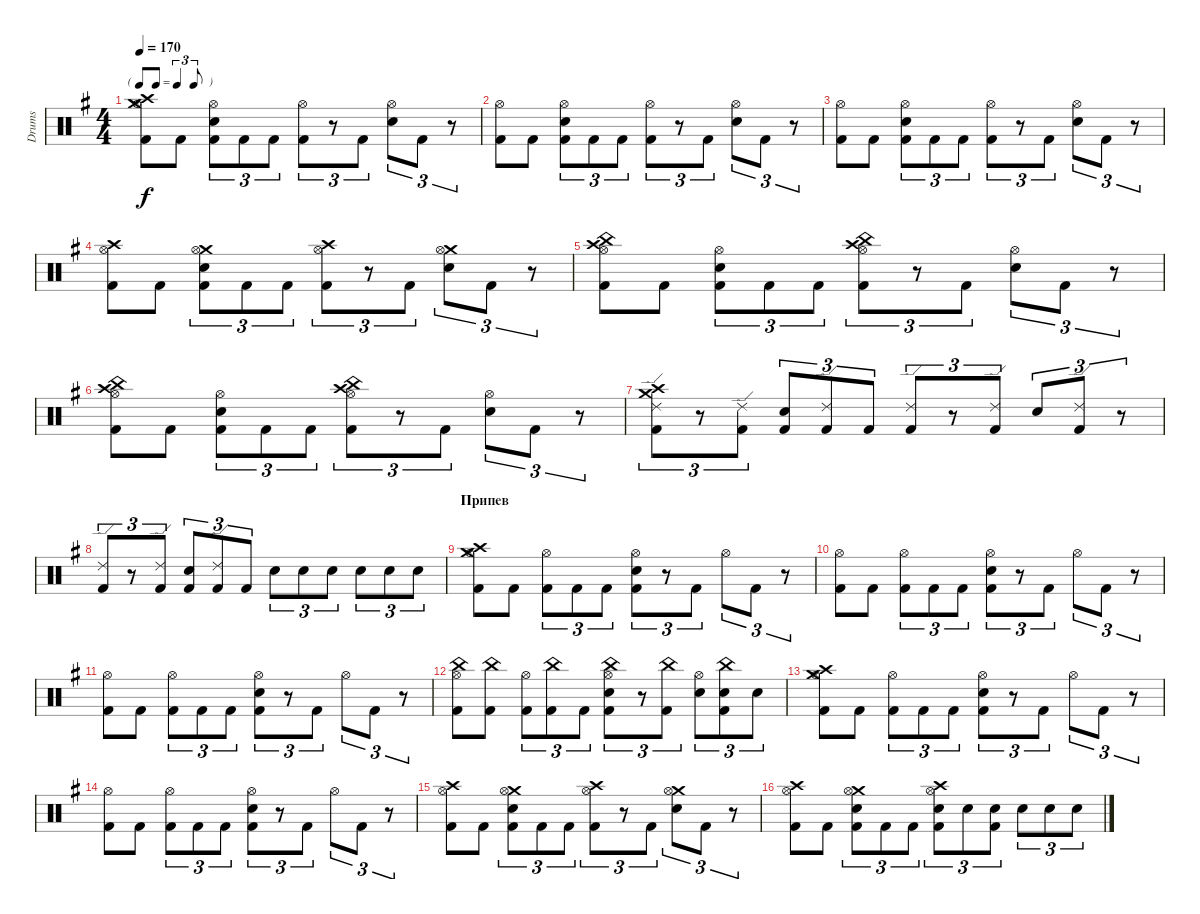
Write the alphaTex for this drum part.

\track ("Drums" "Drums") {instrument percussion}
\staff {score}
\articulation defaults
\ts (4 4)
\tf triplet8th
\tempo 170
\clef neutral
\ks eminor
("Crash high (hit)" "Crash medium (hit)" "Hi-Hat (open)" "Kick (hit) 2").8{dy f} "Kick (hit) 2".8 ("Electric Snare (hit)" "Hi-Hat (open)" "Kick (hit) 2").8{tu (3 2)} "Kick (hit) 2".8{tu (3 2)} "Kick (hit) 2".8{tu (3 2)} ("Hi-Hat (open)" "Kick (hit) 2").8{tu (3 2)} r.8{tu (3 2)} "Kick (hit) 2".8{tu (3 2)} ("Electric Snare (hit)" "Hi-Hat (open)").8{tu (3 2)} "Kick (hit) 2".8{tu (3 2)} r.8{tu (3 2)} |
("Hi-Hat (open)" "Kick (hit) 2").8 "Kick (hit) 2".8 ("Electric Snare (hit)" "Hi-Hat (open)" "Kick (hit) 2").8{tu (3 2)} "Kick (hit) 2".8{tu (3 2)} "Kick (hit) 2".8{tu (3 2)} ("Hi-Hat (open)" "Kick (hit) 2").8{tu (3 2)} r.8{tu (3 2)} "Kick (hit) 2".8{tu (3 2)} ("Electric Snare (hit)" "Hi-Hat (open)").8{tu (3 2)} "Kick (hit) 2".8{tu (3 2)} r.8{tu (3 2)} |
("Hi-Hat (open)" "Kick (hit) 2").8 "Kick (hit) 2".8 ("Electric Snare (hit)" "Hi-Hat (open)" "Kick (hit) 2").8{tu (3 2)} "Kick (hit) 2".8{tu (3 2)} "Kick (hit) 2".8{tu (3 2)} ("Hi-Hat (open)" "Kick (hit) 2").8{tu (3 2)} r.8{tu (3 2)} "Kick (hit) 2".8{tu (3 2)} ("Electric Snare (hit)" "Hi-Hat (open)").8{tu (3 2)} "Kick (hit) 2".8{tu (3 2)} r.8{tu (3 2)} |
("Crash high (hit)" "Hi-Hat (open)" "Kick (hit) 2").8 "Kick (hit) 2".8 ("Crash medium (hit)" "Electric Snare (hit)" "Hi-Hat (open)" "Kick (hit) 2").8{tu (3 2)} "Kick (hit) 2".8{tu (3 2)} "Kick (hit) 2".8{tu (3 2)} ("Crash high (hit)" "Hi-Hat (open)" "Kick (hit) 2").8{tu (3 2)} r.8{tu (3 2)} "Kick (hit) 2".8{tu (3 2)} ("Crash medium (hit)" "Electric Snare (hit)" "Hi-Hat (open)").8{tu (3 2)} "Kick (hit) 2".8{tu (3 2)} r.8{tu (3 2)} |
("Crash high (hit)" "China (hit)" "Hi-Hat (open)" "Kick (hit) 2").8 "Kick (hit) 2".8 ("Electric Snare (hit)" "Hi-Hat (open)" "Kick (hit) 2").8{tu (3 2)} "Kick (hit) 2".8{tu (3 2)} "Kick (hit) 2".8{tu (3 2)} ("Crash high (hit)" "China (hit)" "Hi-Hat (open)" "Kick (hit) 2").8{tu (3 2)} r.8{tu (3 2)} "Kick (hit) 2".8{tu (3 2)} ("Electric Snare (hit)" "Hi-Hat (open)").8{tu (3 2)} "Kick (hit) 2".8{tu (3 2)} r.8{tu (3 2)} |
("Crash high (hit)" "China (hit)" "Hi-Hat (open)" "Kick (hit) 2").8 "Kick (hit) 2".8 ("Electric Snare (hit)" "Hi-Hat (open)" "Kick (hit) 2").8{tu (3 2)} "Kick (hit) 2".8{tu (3 2)} "Kick (hit) 2".8{tu (3 2)} ("Crash high (hit)" "China (hit)" "Hi-Hat (open)" "Kick (hit) 2").8{tu (3 2)} r.8{tu (3 2)} "Kick (hit) 2".8{tu (3 2)} ("Electric Snare (hit)" "Hi-Hat (open)").8{tu (3 2)} "Kick (hit) 2".8{tu (3 2)} r.8{tu (3 2)} |
("Crash high (hit)" "Crash medium (hit)" "Ride (edge) 2" "Kick (hit) 2").8{tu (3 2)} r.8{tu (3 2)} ("Ride (edge) 2" "Kick (hit) 2").8{tu (3 2)} ("Electric Snare (hit)" "Kick (hit) 2").8{tu (3 2)} ("Ride (edge) 2" "Kick (hit) 2").8{tu (3 2)} "Kick (hit) 2".8{tu (3 2)} ("Ride (edge) 2" "Kick (hit) 2").8{tu (3 2)} r.8{tu (3 2)} ("Ride (edge) 2" "Kick (hit) 2").8{tu (3 2)} "Electric Snare (hit)".8{tu (3 2)} ("Ride (edge) 2" "Kick (hit) 2").8{tu (3 2)} r.8{tu (3 2)} |
("Ride (edge) 2" "Kick (hit) 2").8{tu (3 2)} r.8{tu (3 2)} ("Ride (edge) 2" "Kick (hit) 2").8{tu (3 2)} ("Electric Snare (hit)" "Kick (hit) 2").8{tu (3 2)} ("Ride (edge) 2" "Kick (hit) 2").8{tu (3 2)} "Kick (hit) 2".8{tu (3 2)} "Electric Snare (hit)".8{tu (3 2)} "Electric Snare (hit)".8{tu (3 2)} "Electric Snare (hit)".8{tu (3 2)} "Electric Snare (hit)".8{tu (3 2)} "Electric Snare (hit)".8{tu (3 2)} "Electric Snare (hit)".8{tu (3 2)} |
\section ("" "Припев")
("Crash high (hit)" "Crash medium (hit)" "Hi-Hat (open)" "Kick (hit) 2").8 "Kick (hit) 2".8 ("Hi-Hat (open)" "Kick (hit) 2").8{tu (3 2)} "Kick (hit) 2".8{tu (3 2)} "Kick (hit) 2".8{tu (3 2)} ("Electric Snare (hit)" "Hi-Hat (open)" "Kick (hit) 2").8{tu (3 2)} r.8{tu (3 2)} "Kick (hit) 2".8{tu (3 2)} "Hi-Hat (open)".8{tu (3 2)} "Kick (hit) 2".8{tu (3 2)} r.8{tu (3 2)} |
("Hi-Hat (open)" "Kick (hit) 2").8 "Kick (hit) 2".8 ("Hi-Hat (open)" "Kick (hit) 2").8{tu (3 2)} "Kick (hit) 2".8{tu (3 2)} "Kick (hit) 2".8{tu (3 2)} ("Electric Snare (hit)" "Hi-Hat (open)" "Kick (hit) 2").8{tu (3 2)} r.8{tu (3 2)} "Kick (hit) 2".8{tu (3 2)} "Hi-Hat (open)".8{tu (3 2)} "Kick (hit) 2".8{tu (3 2)} r.8{tu (3 2)} |
("Hi-Hat (open)" "Kick (hit) 2").8 "Kick (hit) 2".8 ("Hi-Hat (open)" "Kick (hit) 2").8{tu (3 2)} "Kick (hit) 2".8{tu (3 2)} "Kick (hit) 2".8{tu (3 2)} ("Electric Snare (hit)" "Hi-Hat (open)" "Kick (hit) 2").8{tu (3 2)} r.8{tu (3 2)} "Kick (hit) 2".8{tu (3 2)} "Hi-Hat (open)".8{tu (3 2)} "Kick (hit) 2".8{tu (3 2)} r.8{tu (3 2)} |
("China (hit)" "Hi-Hat (open)" "Kick (hit) 2").8 ("China (hit)" "Kick (hit) 2").8 ("Hi-Hat (open)" "Kick (hit) 2").8{tu (3 2)} ("China (hit)" "Kick (hit) 2").8{tu (3 2)} "Kick (hit) 2".8{tu (3 2)} ("China (hit)" "Electric Snare (hit)" "Hi-Hat (open)" "Kick (hit) 2").8{tu (3 2)} r.8{tu (3 2)} ("China (hit)" "Kick (hit) 2").8{tu (3 2)} ("Electric Snare (hit)" "Hi-Hat (open)").8{tu (3 2)} ("China (hit)" "Electric Snare (hit)" "Kick (hit) 2").8{tu (3 2)} "Electric Snare (hit)".8{tu (3 2)} |
("Crash high (hit)" "Crash medium (hit)" "Hi-Hat (open)" "Kick (hit) 2").8 "Kick (hit) 2".8 ("Hi-Hat (open)" "Kick (hit) 2").8{tu (3 2)} "Kick (hit) 2".8{tu (3 2)} "Kick (hit) 2".8{tu (3 2)} ("Electric Snare (hit)" "Hi-Hat (open)" "Kick (hit) 2").8{tu (3 2)} r.8{tu (3 2)} "Kick (hit) 2".8{tu (3 2)} "Hi-Hat (open)".8{tu (3 2)} "Kick (hit) 2".8{tu (3 2)} r.8{tu (3 2)} |
("Hi-Hat (open)" "Kick (hit) 2").8 "Kick (hit) 2".8 ("Hi-Hat (open)" "Kick (hit) 2").8{tu (3 2)} "Kick (hit) 2".8{tu (3 2)} "Kick (hit) 2".8{tu (3 2)} ("Electric Snare (hit)" "Hi-Hat (open)" "Kick (hit) 2").8{tu (3 2)} r.8{tu (3 2)} "Kick (hit) 2".8{tu (3 2)} "Hi-Hat (open)".8{tu (3 2)} "Kick (hit) 2".8{tu (3 2)} r.8{tu (3 2)} |
("Crash high (hit)" "Hi-Hat (open)" "Kick (hit) 2").8 "Kick (hit) 2".8 ("Crash medium (hit)" "Electric Snare (hit)" "Hi-Hat (open)" "Kick (hit) 2").8{tu (3 2)} "Kick (hit) 2".8{tu (3 2)} "Kick (hit) 2".8{tu (3 2)} ("Crash high (hit)" "Hi-Hat (open)" "Kick (hit) 2").8{tu (3 2)} r.8{tu (3 2)} "Kick (hit) 2".8{tu (3 2)} ("Crash medium (hit)" "Electric Snare (hit)" "Hi-Hat (open)").8{tu (3 2)} "Kick (hit) 2".8{tu (3 2)} r.8{tu (3 2)} |
("Crash high (hit)" "Hi-Hat (open)" "Kick (hit) 2").8 "Kick (hit) 2".8 ("Crash medium (hit)" "Electric Snare (hit)" "Hi-Hat (open)" "Kick (hit) 2").8{tu (3 2)} "Kick (hit) 2".8{tu (3 2)} "Kick (hit) 2".8{tu (3 2)} ("Crash high (hit)" "Electric Snare (hit)" "Hi-Hat (open)" "Kick (hit) 2").8{tu (3 2)} "Electric Snare (hit)".8{tu (3 2)} ("Electric Snare (hit)" "Kick (hit) 2").8{tu (3 2)} "Electric Snare (hit)".8{tu (3 2)} "Electric Snare (hit)".8{tu (3 2)} "Electric Snare (hit)".8{tu (3 2)}
